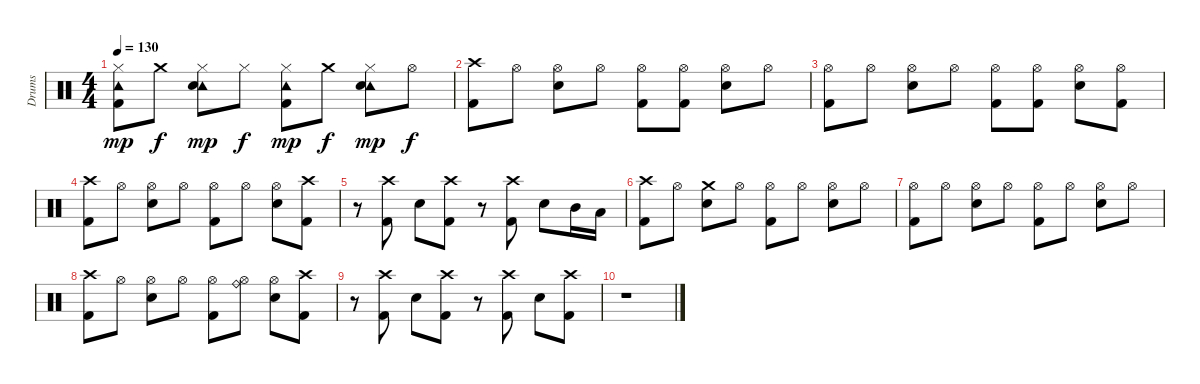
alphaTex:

\track ("Drums" "Drums") {instrument percussion}
\staff {score}
\articulation defaults
\ts (4 4)
\tempo 130
\clef neutral
\ks c
("Hi-Hat (closed)" "Tambourine (hit)" "Kick (hit) 2").8{dy mp} "Crash medium (hit)".8{dy f} ("Hi-Hat (closed)" "Tambourine (hit)" "Electric Snare (hit)").8{dy mp} "Hi-Hat (closed)".8{dy f} ("Hi-Hat (closed)" "Tambourine (hit)" "Kick (hit) 2").8{dy mp} "Crash medium (hit)".8{dy f} ("Hi-Hat (closed)" "Tambourine (hit)" "Electric Snare (hit)").8{dy mp} "Hi-Hat (open)".8{dy f} |
("Crash high (hit)" "Kick (hit) 2").8 "Hi-Hat (open)".8 ("Hi-Hat (open)" "Electric Snare (hit)").8 "Hi-Hat (open)".8 ("Hi-Hat (open)" "Kick (hit) 2").8 ("Hi-Hat (open)" "Kick (hit) 2").8 ("Hi-Hat (open)" "Electric Snare (hit)").8 "Hi-Hat (open)".8 |
("Hi-Hat (open)" "Kick (hit) 2").8 "Hi-Hat (open)".8 ("Hi-Hat (open)" "Electric Snare (hit)").8 "Hi-Hat (open)".8 ("Hi-Hat (open)" "Kick (hit) 2").8 ("Hi-Hat (open)" "Kick (hit) 2").8 ("Hi-Hat (open)" "Electric Snare (hit)").8 ("Hi-Hat (open)" "Kick (hit) 2").8 |
("Crash high (hit)" "Kick (hit) 2").8 "Hi-Hat (open)".8 ("Hi-Hat (open)" "Electric Snare (hit)").8 "Hi-Hat (open)".8 ("Hi-Hat (open)" "Kick (hit) 2").8 "Hi-Hat (open)".8 ("Hi-Hat (open)" "Electric Snare (hit)").8 ("Crash high (hit)" "Kick (hit) 2").8 |
r.8 ("Crash high (hit)" "Kick (hit) 2").8 "Electric Snare (hit)".8 ("Crash high (hit)" "Kick (hit) 2").8 r.8 ("Crash high (hit)" "Kick (hit) 2").8 "Electric Snare (hit)".8 "Mid Tom (hit)".16 "Low Tom (hit)".16 |
("Crash high (hit)" "Kick (hit) 2").8 "Hi-Hat (open)".8 ("Crash medium (hit)" "Electric Snare (hit)").8 "Hi-Hat (open)".8 ("Hi-Hat (open)" "Kick (hit) 2").8 "Hi-Hat (open)".8 ("Hi-Hat (open)" "Electric Snare (hit)").8 "Hi-Hat (open)".8 |
("Hi-Hat (open)" "Kick (hit) 2").8 "Hi-Hat (open)".8 ("Hi-Hat (open)" "Electric Snare (hit)").8 "Hi-Hat (open)".8 ("Hi-Hat (open)" "Kick (hit) 2").8 "Hi-Hat (open)".8 ("Hi-Hat (open)" "Electric Snare (hit)").8 "Hi-Hat (open)".8 |
("Crash high (hit)" "Kick (hit) 2").8 "Hi-Hat (open)".8 ("Hi-Hat (open)" "Electric Snare (hit)").8 "Hi-Hat (open)".8 ("Hi-Hat (open)" "Kick (hit) 2").8 ("Ride (bell)" "Hi-Hat (open)").8 ("Hi-Hat (open)" "Electric Snare (hit)").8 ("Crash high (hit)" "Kick (hit) 2").8 |
r.8 ("Crash high (hit)" "Kick (hit) 2").8 "Electric Snare (hit)".8 ("Crash high (hit)" "Kick (hit) 2").8 r.8 ("Crash high (hit)" "Kick (hit) 2").8 "Electric Snare (hit)".8 ("Crash high (hit)" "Kick (hit) 2").8 |
r.1
